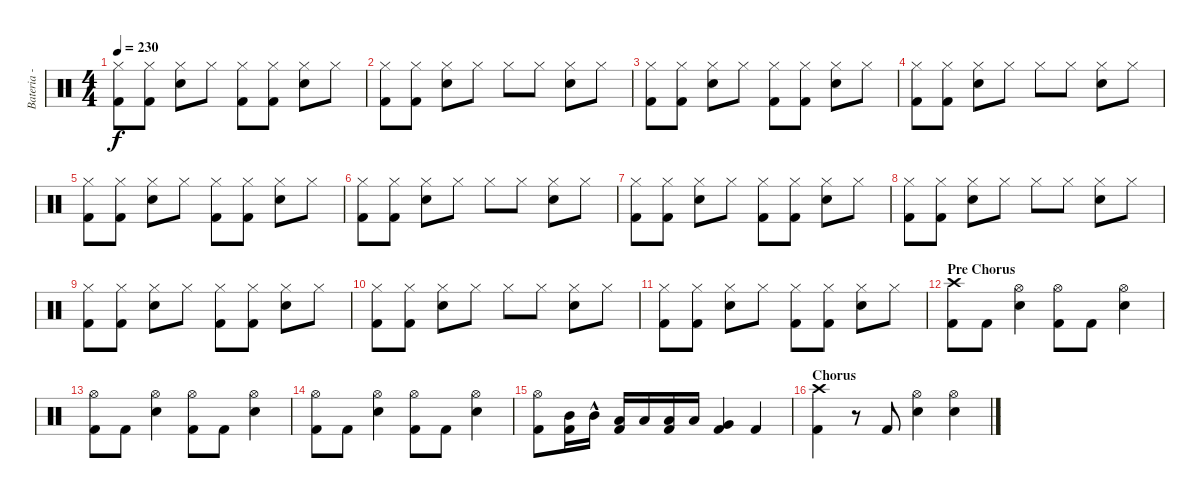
\track ("Bateria - Larzon" "Bateria - ") {instrument percussion}
\staff {score}
\articulation defaults
\ts (4 4)
\tempo 230
\clef neutral
\ks c
("Hi-Hat (closed)" "Kick (hit) 2").8{dy f} ("Hi-Hat (closed)" "Kick (hit) 2").8 ("Hi-Hat (closed)" "Electric Snare (hit)").8 "Hi-Hat (closed)".8 ("Hi-Hat (closed)" "Kick (hit) 2").8 ("Hi-Hat (closed)" "Kick (hit) 2").8 ("Hi-Hat (closed)" "Electric Snare (hit)").8 "Hi-Hat (closed)".8 |
("Hi-Hat (closed)" "Kick (hit) 2").8 ("Hi-Hat (closed)" "Kick (hit) 2").8 ("Hi-Hat (closed)" "Electric Snare (hit)").8 "Hi-Hat (closed)".8 "Hi-Hat (closed)".8 "Hi-Hat (closed)".8 ("Hi-Hat (closed)" "Electric Snare (hit)").8 "Hi-Hat (closed)".8 |
("Hi-Hat (closed)" "Kick (hit) 2").8 ("Hi-Hat (closed)" "Kick (hit) 2").8 ("Hi-Hat (closed)" "Electric Snare (hit)").8 "Hi-Hat (closed)".8 ("Hi-Hat (closed)" "Kick (hit) 2").8 ("Hi-Hat (closed)" "Kick (hit) 2").8 ("Hi-Hat (closed)" "Electric Snare (hit)").8 "Hi-Hat (closed)".8 |
("Hi-Hat (closed)" "Kick (hit) 2").8 ("Hi-Hat (closed)" "Kick (hit) 2").8 ("Hi-Hat (closed)" "Electric Snare (hit)").8 "Hi-Hat (closed)".8 "Hi-Hat (closed)".8 "Hi-Hat (closed)".8 ("Hi-Hat (closed)" "Electric Snare (hit)").8 "Hi-Hat (closed)".8 |
("Hi-Hat (closed)" "Kick (hit) 2").8 ("Hi-Hat (closed)" "Kick (hit) 2").8 ("Hi-Hat (closed)" "Electric Snare (hit)").8 "Hi-Hat (closed)".8 ("Hi-Hat (closed)" "Kick (hit) 2").8 ("Hi-Hat (closed)" "Kick (hit) 2").8 ("Hi-Hat (closed)" "Electric Snare (hit)").8 "Hi-Hat (closed)".8 |
("Hi-Hat (closed)" "Kick (hit) 2").8 ("Hi-Hat (closed)" "Kick (hit) 2").8 ("Hi-Hat (closed)" "Electric Snare (hit)").8 "Hi-Hat (closed)".8 "Hi-Hat (closed)".8 "Hi-Hat (closed)".8 ("Hi-Hat (closed)" "Electric Snare (hit)").8 "Hi-Hat (closed)".8 |
("Hi-Hat (closed)" "Kick (hit) 2").8 ("Hi-Hat (closed)" "Kick (hit) 2").8 ("Hi-Hat (closed)" "Electric Snare (hit)").8 "Hi-Hat (closed)".8 ("Hi-Hat (closed)" "Kick (hit) 2").8 ("Hi-Hat (closed)" "Kick (hit) 2").8 ("Hi-Hat (closed)" "Electric Snare (hit)").8 "Hi-Hat (closed)".8 |
("Hi-Hat (closed)" "Kick (hit) 2").8 ("Hi-Hat (closed)" "Kick (hit) 2").8 ("Hi-Hat (closed)" "Electric Snare (hit)").8 "Hi-Hat (closed)".8 "Hi-Hat (closed)".8 "Hi-Hat (closed)".8 ("Hi-Hat (closed)" "Electric Snare (hit)").8 "Hi-Hat (closed)".8 |
("Hi-Hat (closed)" "Kick (hit) 2").8 ("Hi-Hat (closed)" "Kick (hit) 2").8 ("Hi-Hat (closed)" "Electric Snare (hit)").8 "Hi-Hat (closed)".8 ("Hi-Hat (closed)" "Kick (hit) 2").8 ("Hi-Hat (closed)" "Kick (hit) 2").8 ("Hi-Hat (closed)" "Electric Snare (hit)").8 "Hi-Hat (closed)".8 |
("Hi-Hat (closed)" "Kick (hit) 2").8 ("Hi-Hat (closed)" "Kick (hit) 2").8 ("Hi-Hat (closed)" "Electric Snare (hit)").8 "Hi-Hat (closed)".8 "Hi-Hat (closed)".8 "Hi-Hat (closed)".8 ("Hi-Hat (closed)" "Electric Snare (hit)").8 "Hi-Hat (closed)".8 |
("Hi-Hat (closed)" "Kick (hit) 2").8 ("Hi-Hat (closed)" "Kick (hit) 2").8 ("Hi-Hat (closed)" "Electric Snare (hit)").8 "Hi-Hat (closed)".8 ("Hi-Hat (closed)" "Kick (hit) 2").8 ("Hi-Hat (closed)" "Kick (hit) 2").8 ("Hi-Hat (closed)" "Electric Snare (hit)").8 "Hi-Hat (closed)".8 |
\section ("" "Pre Chorus")
("Crash high (hit)" "Kick (hit) 2").8 "Kick (hit) 2".8 ("Hi-Hat (open)" "Electric Snare (hit)").4 ("Kick (hit) 2" "Hi-Hat (open)").8 "Kick (hit) 2".8 ("Hi-Hat (open)" "Electric Snare (hit)").4 |
("Kick (hit) 2" "Hi-Hat (open)").8 "Kick (hit) 2".8 ("Hi-Hat (open)" "Electric Snare (hit)").4 ("Kick (hit) 2" "Hi-Hat (open)").8 "Kick (hit) 2".8 ("Hi-Hat (open)" "Electric Snare (hit)").4 |
("Kick (hit) 2" "Hi-Hat (open)").8 "Kick (hit) 2".8 ("Hi-Hat (open)" "Electric Snare (hit)").4 ("Kick (hit) 2" "Hi-Hat (open)").8 "Kick (hit) 2".8 ("Hi-Hat (open)" "Electric Snare (hit)").4 |
("Kick (hit) 2" "Hi-Hat (open)").8 ("Mid Tom (hit)" "Kick (hit) 2").16 "Mid Tom (hit)"{hac}.16 ("Kick (hit) 2" "Low Tom (hit)").16 "Low Tom (hit)".16 ("Kick (hit) 2" "Low Tom (hit)").16 "Low Tom (hit)".16 ("Kick (hit) 2" "Very Low Tom (hit)").4 "Kick (hit) 2".4 |
\section ("" "Chorus")
("Crash high (hit)" "Kick (hit) 2").4 r.8 "Kick (hit) 2".8 ("Electric Snare (hit)" "Hi-Hat (open)").4 ("Hi-Hat (open)" "Electric Snare (hit)").4
